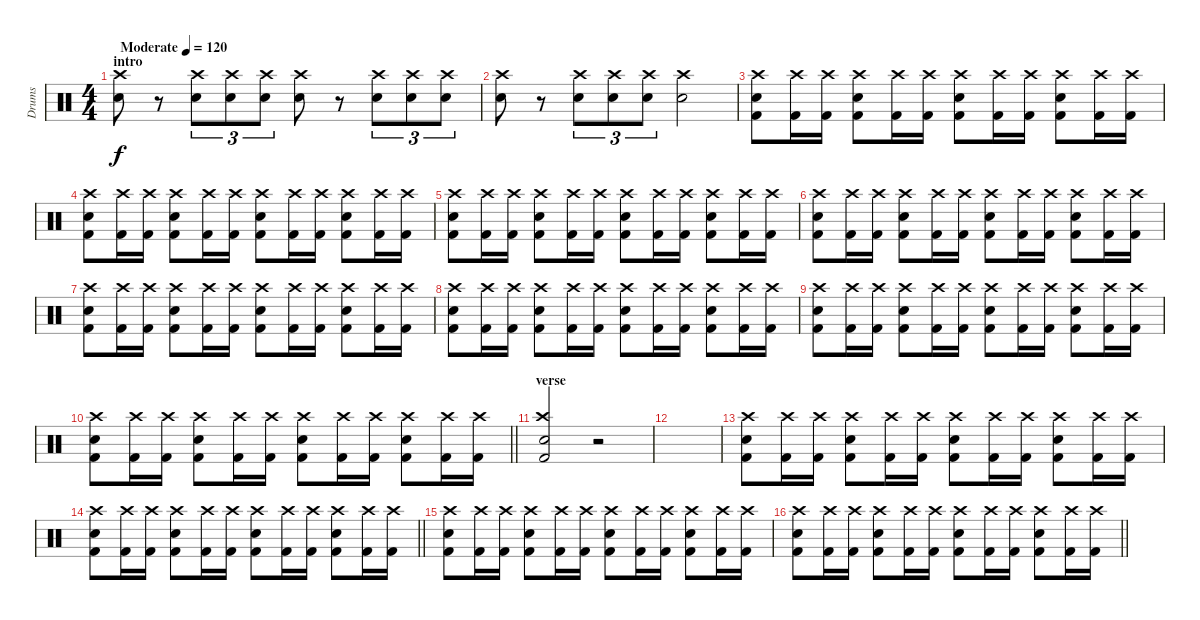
\track ("Drums" "Drums") {instrument percussion}
\staff {score}
\articulation defaults
\ts (4 4)
\section ("" "intro")
\tempo (120 "Moderate")
\clef neutral
\ks c
("Electric Snare (hit)" "Crash high (hit)").8{dy f} r.8 ("Electric Snare (hit)" "Crash high (hit)").8{tu (3 2)} ("Electric Snare (hit)" "Crash high (hit)").8{tu (3 2)} ("Electric Snare (hit)" "Crash high (hit)").8{tu (3 2)} ("Electric Snare (hit)" "Crash high (hit)").8 r.8 ("Electric Snare (hit)" "Crash high (hit)").8{tu (3 2)} ("Electric Snare (hit)" "Crash high (hit)").8{tu (3 2)} ("Electric Snare (hit)" "Crash high (hit)").8{tu (3 2)} |
("Electric Snare (hit)" "Crash high (hit)").8 r.8 ("Electric Snare (hit)" "Crash high (hit)").8{tu (3 2)} ("Electric Snare (hit)" "Crash high (hit)").8{tu (3 2)} ("Electric Snare (hit)" "Crash high (hit)").8{tu (3 2)} ("Electric Snare (hit)" "Crash high (hit)").2 |
("Electric Snare (hit)" "Crash high (hit)" "Kick (hit) 2").8 ("Crash high (hit)" "Kick (hit) 2").16 ("Crash high (hit)" "Kick (hit) 2").16 ("Electric Snare (hit)" "Crash high (hit)" "Kick (hit) 2").8 ("Crash high (hit)" "Kick (hit) 2").16 ("Crash high (hit)" "Kick (hit) 2").16 ("Electric Snare (hit)" "Crash high (hit)" "Kick (hit) 2").8 ("Crash high (hit)" "Kick (hit) 2").16 ("Crash high (hit)" "Kick (hit) 2").16 ("Electric Snare (hit)" "Crash high (hit)" "Kick (hit) 2").8 ("Crash high (hit)" "Kick (hit) 2").16 ("Crash high (hit)" "Kick (hit) 2").16 |
("Electric Snare (hit)" "Crash high (hit)" "Kick (hit) 2").8 ("Crash high (hit)" "Kick (hit) 2").16 ("Crash high (hit)" "Kick (hit) 2").16 ("Electric Snare (hit)" "Crash high (hit)" "Kick (hit) 2").8 ("Crash high (hit)" "Kick (hit) 2").16 ("Crash high (hit)" "Kick (hit) 2").16 ("Electric Snare (hit)" "Crash high (hit)" "Kick (hit) 2").8 ("Crash high (hit)" "Kick (hit) 2").16 ("Crash high (hit)" "Kick (hit) 2").16 ("Electric Snare (hit)" "Crash high (hit)" "Kick (hit) 2").8 ("Crash high (hit)" "Kick (hit) 2").16 ("Crash high (hit)" "Kick (hit) 2").16 |
("Electric Snare (hit)" "Crash high (hit)" "Kick (hit) 2").8 ("Crash high (hit)" "Kick (hit) 2").16 ("Crash high (hit)" "Kick (hit) 2").16 ("Electric Snare (hit)" "Crash high (hit)" "Kick (hit) 2").8 ("Crash high (hit)" "Kick (hit) 2").16 ("Crash high (hit)" "Kick (hit) 2").16 ("Electric Snare (hit)" "Crash high (hit)" "Kick (hit) 2").8 ("Crash high (hit)" "Kick (hit) 2").16 ("Crash high (hit)" "Kick (hit) 2").16 ("Electric Snare (hit)" "Crash high (hit)" "Kick (hit) 2").8 ("Crash high (hit)" "Kick (hit) 2").16 ("Crash high (hit)" "Kick (hit) 2").16 |
("Electric Snare (hit)" "Crash high (hit)" "Kick (hit) 2").8 ("Crash high (hit)" "Kick (hit) 2").16 ("Crash high (hit)" "Kick (hit) 2").16 ("Electric Snare (hit)" "Crash high (hit)" "Kick (hit) 2").8 ("Crash high (hit)" "Kick (hit) 2").16 ("Crash high (hit)" "Kick (hit) 2").16 ("Electric Snare (hit)" "Crash high (hit)" "Kick (hit) 2").8 ("Crash high (hit)" "Kick (hit) 2").16 ("Crash high (hit)" "Kick (hit) 2").16 ("Electric Snare (hit)" "Crash high (hit)" "Kick (hit) 2").8 ("Crash high (hit)" "Kick (hit) 2").16 ("Crash high (hit)" "Kick (hit) 2").16 |
("Electric Snare (hit)" "Crash high (hit)" "Kick (hit) 2").8 ("Crash high (hit)" "Kick (hit) 2").16 ("Crash high (hit)" "Kick (hit) 2").16 ("Electric Snare (hit)" "Crash high (hit)" "Kick (hit) 2").8 ("Crash high (hit)" "Kick (hit) 2").16 ("Crash high (hit)" "Kick (hit) 2").16 ("Electric Snare (hit)" "Crash high (hit)" "Kick (hit) 2").8 ("Crash high (hit)" "Kick (hit) 2").16 ("Crash high (hit)" "Kick (hit) 2").16 ("Electric Snare (hit)" "Crash high (hit)" "Kick (hit) 2").8 ("Crash high (hit)" "Kick (hit) 2").16 ("Crash high (hit)" "Kick (hit) 2").16 |
("Electric Snare (hit)" "Crash high (hit)" "Kick (hit) 2").8 ("Crash high (hit)" "Kick (hit) 2").16 ("Crash high (hit)" "Kick (hit) 2").16 ("Electric Snare (hit)" "Crash high (hit)" "Kick (hit) 2").8 ("Crash high (hit)" "Kick (hit) 2").16 ("Crash high (hit)" "Kick (hit) 2").16 ("Electric Snare (hit)" "Crash high (hit)" "Kick (hit) 2").8 ("Crash high (hit)" "Kick (hit) 2").16 ("Crash high (hit)" "Kick (hit) 2").16 ("Electric Snare (hit)" "Crash high (hit)" "Kick (hit) 2").8 ("Crash high (hit)" "Kick (hit) 2").16 ("Crash high (hit)" "Kick (hit) 2").16 |
("Electric Snare (hit)" "Crash high (hit)" "Kick (hit) 2").8 ("Crash high (hit)" "Kick (hit) 2").16 ("Crash high (hit)" "Kick (hit) 2").16 ("Electric Snare (hit)" "Crash high (hit)" "Kick (hit) 2").8 ("Crash high (hit)" "Kick (hit) 2").16 ("Crash high (hit)" "Kick (hit) 2").16 ("Electric Snare (hit)" "Crash high (hit)" "Kick (hit) 2").8 ("Crash high (hit)" "Kick (hit) 2").16 ("Crash high (hit)" "Kick (hit) 2").16 ("Electric Snare (hit)" "Crash high (hit)" "Kick (hit) 2").8 ("Crash high (hit)" "Kick (hit) 2").16 ("Crash high (hit)" "Kick (hit) 2").16 |
\barLineRight lightlight
("Electric Snare (hit)" "Crash high (hit)" "Kick (hit) 2").8 ("Crash high (hit)" "Kick (hit) 2").16 ("Crash high (hit)" "Kick (hit) 2").16 ("Electric Snare (hit)" "Crash high (hit)" "Kick (hit) 2").8 ("Crash high (hit)" "Kick (hit) 2").16 ("Crash high (hit)" "Kick (hit) 2").16 ("Electric Snare (hit)" "Crash high (hit)" "Kick (hit) 2").8 ("Crash high (hit)" "Kick (hit) 2").16 ("Crash high (hit)" "Kick (hit) 2").16 ("Electric Snare (hit)" "Crash high (hit)" "Kick (hit) 2").8 ("Crash high (hit)" "Kick (hit) 2").16 ("Crash high (hit)" "Kick (hit) 2").16 |
\section ("" "verse")
("Electric Snare (hit)" "Kick (hit) 2" "Crash high (hit)").2 r.2 |
|
("Electric Snare (hit)" "Crash high (hit)" "Kick (hit) 2").8 ("Crash high (hit)" "Kick (hit) 2").16 ("Crash high (hit)" "Kick (hit) 2").16 ("Electric Snare (hit)" "Crash high (hit)" "Kick (hit) 2").8 ("Crash high (hit)" "Kick (hit) 2").16 ("Crash high (hit)" "Kick (hit) 2").16 ("Electric Snare (hit)" "Crash high (hit)" "Kick (hit) 2").8 ("Crash high (hit)" "Kick (hit) 2").16 ("Crash high (hit)" "Kick (hit) 2").16 ("Electric Snare (hit)" "Crash high (hit)" "Kick (hit) 2").8 ("Crash high (hit)" "Kick (hit) 2").16 ("Crash high (hit)" "Kick (hit) 2").16 |
\barLineRight lightlight
("Electric Snare (hit)" "Crash high (hit)" "Kick (hit) 2").8 ("Crash high (hit)" "Kick (hit) 2").16 ("Crash high (hit)" "Kick (hit) 2").16 ("Electric Snare (hit)" "Crash high (hit)" "Kick (hit) 2").8 ("Crash high (hit)" "Kick (hit) 2").16 ("Crash high (hit)" "Kick (hit) 2").16 ("Electric Snare (hit)" "Crash high (hit)" "Kick (hit) 2").8 ("Crash high (hit)" "Kick (hit) 2").16 ("Crash high (hit)" "Kick (hit) 2").16 ("Electric Snare (hit)" "Crash high (hit)" "Kick (hit) 2").8 ("Crash high (hit)" "Kick (hit) 2").16 ("Crash high (hit)" "Kick (hit) 2").16 |
("Electric Snare (hit)" "Crash high (hit)" "Kick (hit) 2").8 ("Crash high (hit)" "Kick (hit) 2").16 ("Crash high (hit)" "Kick (hit) 2").16 ("Electric Snare (hit)" "Crash high (hit)" "Kick (hit) 2").8 ("Crash high (hit)" "Kick (hit) 2").16 ("Crash high (hit)" "Kick (hit) 2").16 ("Electric Snare (hit)" "Crash high (hit)" "Kick (hit) 2").8 ("Crash high (hit)" "Kick (hit) 2").16 ("Crash high (hit)" "Kick (hit) 2").16 ("Electric Snare (hit)" "Crash high (hit)" "Kick (hit) 2").8 ("Crash high (hit)" "Kick (hit) 2").16 ("Crash high (hit)" "Kick (hit) 2").16 |
\barLineRight lightlight
("Electric Snare (hit)" "Crash high (hit)" "Kick (hit) 2").8 ("Crash high (hit)" "Kick (hit) 2").16 ("Crash high (hit)" "Kick (hit) 2").16 ("Electric Snare (hit)" "Crash high (hit)" "Kick (hit) 2").8 ("Crash high (hit)" "Kick (hit) 2").16 ("Crash high (hit)" "Kick (hit) 2").16 ("Electric Snare (hit)" "Crash high (hit)" "Kick (hit) 2").8 ("Crash high (hit)" "Kick (hit) 2").16 ("Crash high (hit)" "Kick (hit) 2").16 ("Electric Snare (hit)" "Crash high (hit)" "Kick (hit) 2").8 ("Crash high (hit)" "Kick (hit) 2").16 ("Crash high (hit)" "Kick (hit) 2").16
